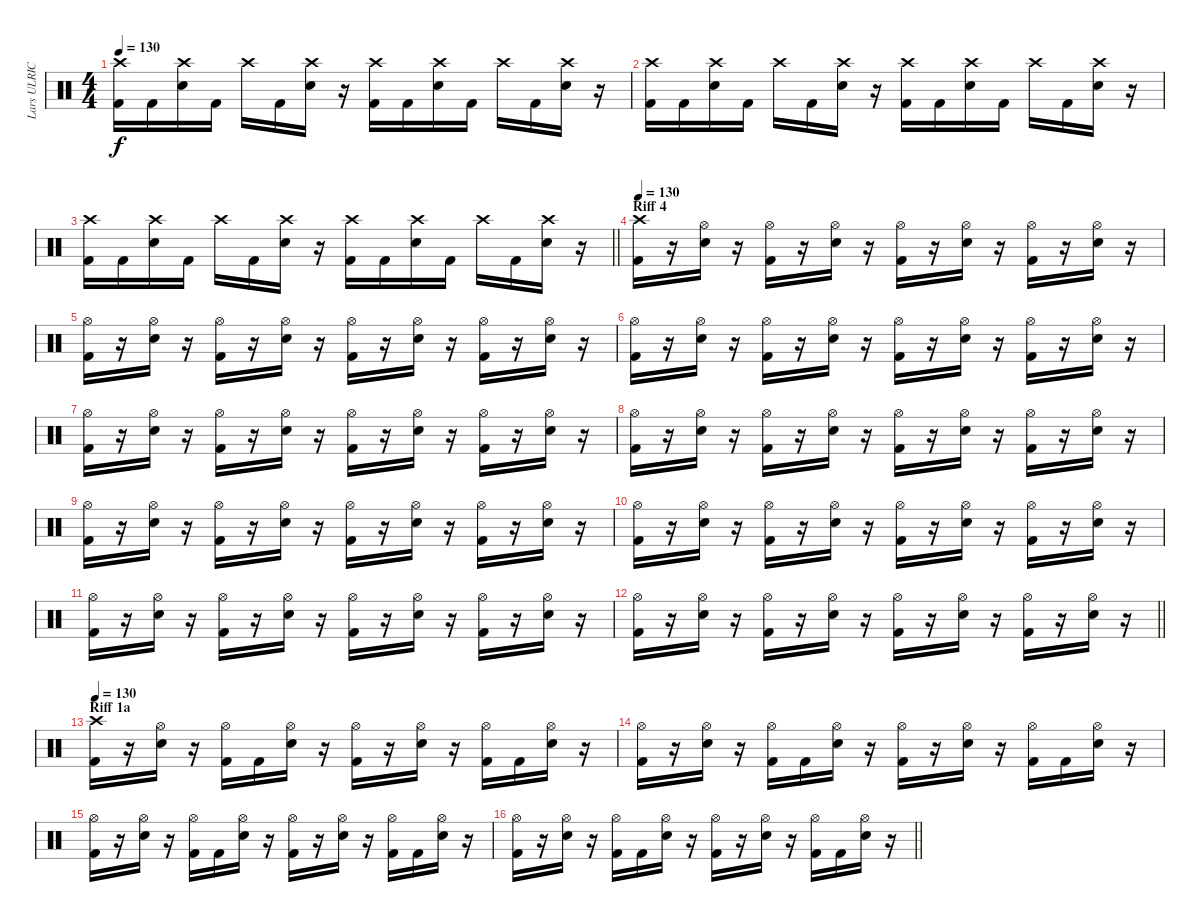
\track ("Lars ULRICH" "Lars ULRIC") {instrument percussion}
\staff {score}
\articulation defaults
\ts (4 4)
\tempo 130
\clef neutral
\ks c
("Crash high (hit)" "Kick (hit) 2").16{dy f} "Kick (hit) 2".16 ("Crash high (hit)" "Snare (hit) 2").16 "Kick (hit) 2".16 "Crash high (hit)".16 "Kick (hit) 2".16 ("Crash high (hit)" "Snare (hit) 2").16 r.16 ("Crash high (hit)" "Kick (hit) 2").16 "Kick (hit) 2".16 ("Crash high (hit)" "Snare (hit) 2").16 "Kick (hit) 2".16 "Crash high (hit)".16 "Kick (hit) 2".16 ("Crash high (hit)" "Snare (hit) 2").16 r.16 |
("Crash high (hit)" "Kick (hit) 2").16 "Kick (hit) 2".16 ("Crash high (hit)" "Snare (hit) 2").16 "Kick (hit) 2".16 "Crash high (hit)".16 "Kick (hit) 2".16 ("Crash high (hit)" "Snare (hit) 2").16 r.16 ("Crash high (hit)" "Kick (hit) 2").16 "Kick (hit) 2".16 ("Crash high (hit)" "Snare (hit) 2").16 "Kick (hit) 2".16 "Crash high (hit)".16 "Kick (hit) 2".16 ("Crash high (hit)" "Snare (hit) 2").16 r.16 |
\barLineRight lightlight
("Crash high (hit)" "Kick (hit) 2").16 "Kick (hit) 2".16 ("Crash high (hit)" "Snare (hit) 2").16 "Kick (hit) 2".16 "Crash high (hit)".16 "Kick (hit) 2".16 ("Crash high (hit)" "Snare (hit) 2").16 r.16 ("Crash high (hit)" "Kick (hit) 2").16 "Kick (hit) 2".16 ("Crash high (hit)" "Snare (hit) 2").16 "Kick (hit) 2".16 "Crash high (hit)".16 "Kick (hit) 2".16 ("Crash high (hit)" "Snare (hit) 2").16 r.16 |
\section ("" "Riff 4")
\tempo 130
("Crash high (hit)" "Kick (hit) 2").16 r.16 ("Hi-Hat (open)" "Snare (hit) 2").16 r.16 ("Hi-Hat (open)" "Kick (hit) 2").16 r.16 ("Hi-Hat (open)" "Snare (hit) 2").16 r.16 ("Hi-Hat (open)" "Kick (hit) 2").16 r.16 ("Hi-Hat (open)" "Snare (hit) 2").16 r.16 ("Hi-Hat (open)" "Kick (hit) 2").16 r.16 ("Hi-Hat (open)" "Snare (hit) 2").16 r.16 |
("Hi-Hat (open)" "Kick (hit) 2").16 r.16 ("Hi-Hat (open)" "Snare (hit) 2").16 r.16 ("Hi-Hat (open)" "Kick (hit) 2").16 r.16 ("Hi-Hat (open)" "Snare (hit) 2").16 r.16 ("Hi-Hat (open)" "Kick (hit) 2").16 r.16 ("Hi-Hat (open)" "Snare (hit) 2").16 r.16 ("Hi-Hat (open)" "Kick (hit) 2").16 r.16 ("Hi-Hat (open)" "Snare (hit) 2").16 r.16 |
("Hi-Hat (open)" "Kick (hit) 2").16 r.16 ("Hi-Hat (open)" "Snare (hit) 2").16 r.16 ("Hi-Hat (open)" "Kick (hit) 2").16 r.16 ("Hi-Hat (open)" "Snare (hit) 2").16 r.16 ("Hi-Hat (open)" "Kick (hit) 2").16 r.16 ("Hi-Hat (open)" "Snare (hit) 2").16 r.16 ("Hi-Hat (open)" "Kick (hit) 2").16 r.16 ("Hi-Hat (open)" "Snare (hit) 2").16 r.16 |
("Hi-Hat (open)" "Kick (hit) 2").16 r.16 ("Hi-Hat (open)" "Snare (hit) 2").16 r.16 ("Hi-Hat (open)" "Kick (hit) 2").16 r.16 ("Hi-Hat (open)" "Snare (hit) 2").16 r.16 ("Hi-Hat (open)" "Kick (hit) 2").16 r.16 ("Hi-Hat (open)" "Snare (hit) 2").16 r.16 ("Hi-Hat (open)" "Kick (hit) 2").16 r.16 ("Hi-Hat (open)" "Snare (hit) 2").16 r.16 |
("Hi-Hat (open)" "Kick (hit) 2").16 r.16 ("Hi-Hat (open)" "Snare (hit) 2").16 r.16 ("Hi-Hat (open)" "Kick (hit) 2").16 r.16 ("Hi-Hat (open)" "Snare (hit) 2").16 r.16 ("Hi-Hat (open)" "Kick (hit) 2").16 r.16 ("Hi-Hat (open)" "Snare (hit) 2").16 r.16 ("Hi-Hat (open)" "Kick (hit) 2").16 r.16 ("Hi-Hat (open)" "Snare (hit) 2").16 r.16 |
("Hi-Hat (open)" "Kick (hit) 2").16 r.16 ("Hi-Hat (open)" "Snare (hit) 2").16 r.16 ("Hi-Hat (open)" "Kick (hit) 2").16 r.16 ("Hi-Hat (open)" "Snare (hit) 2").16 r.16 ("Hi-Hat (open)" "Kick (hit) 2").16 r.16 ("Hi-Hat (open)" "Snare (hit) 2").16 r.16 ("Hi-Hat (open)" "Kick (hit) 2").16 r.16 ("Hi-Hat (open)" "Snare (hit) 2").16 r.16 |
("Hi-Hat (open)" "Kick (hit) 2").16 r.16 ("Hi-Hat (open)" "Snare (hit) 2").16 r.16 ("Hi-Hat (open)" "Kick (hit) 2").16 r.16 ("Hi-Hat (open)" "Snare (hit) 2").16 r.16 ("Hi-Hat (open)" "Kick (hit) 2").16 r.16 ("Hi-Hat (open)" "Snare (hit) 2").16 r.16 ("Hi-Hat (open)" "Kick (hit) 2").16 r.16 ("Hi-Hat (open)" "Snare (hit) 2").16 r.16 |
("Hi-Hat (open)" "Kick (hit) 2").16 r.16 ("Hi-Hat (open)" "Snare (hit) 2").16 r.16 ("Hi-Hat (open)" "Kick (hit) 2").16 r.16 ("Hi-Hat (open)" "Snare (hit) 2").16 r.16 ("Hi-Hat (open)" "Kick (hit) 2").16 r.16 ("Hi-Hat (open)" "Snare (hit) 2").16 r.16 ("Hi-Hat (open)" "Kick (hit) 2").16 r.16 ("Hi-Hat (open)" "Snare (hit) 2").16 r.16 |
\barLineRight lightlight
("Hi-Hat (open)" "Kick (hit) 2").16 r.16 ("Hi-Hat (open)" "Snare (hit) 2").16 r.16 ("Hi-Hat (open)" "Kick (hit) 2").16 r.16 ("Hi-Hat (open)" "Snare (hit) 2").16 r.16 ("Hi-Hat (open)" "Kick (hit) 2").16 r.16 ("Hi-Hat (open)" "Snare (hit) 2").16 r.16 ("Hi-Hat (open)" "Kick (hit) 2").16 r.16 ("Hi-Hat (open)" "Snare (hit) 2").16 r.16 |
\section ("" "Riff 1a")
\tempo 130
("Crash high (hit)" "Kick (hit) 2").16 r.16 ("Hi-Hat (open)" "Snare (hit) 2").16 r.16 ("Hi-Hat (open)" "Kick (hit) 2").16 "Kick (hit) 2".16 ("Hi-Hat (open)" "Snare (hit) 2").16 r.16 ("Hi-Hat (open)" "Kick (hit) 2").16 r.16 ("Hi-Hat (open)" "Snare (hit) 2").16 r.16 ("Hi-Hat (open)" "Kick (hit) 2").16 "Kick (hit) 2".16 ("Hi-Hat (open)" "Snare (hit) 2").16 r.16 |
("Hi-Hat (open)" "Kick (hit) 2").16 r.16 ("Hi-Hat (open)" "Snare (hit) 2").16 r.16 ("Hi-Hat (open)" "Kick (hit) 2").16 "Kick (hit) 2".16 ("Hi-Hat (open)" "Snare (hit) 2").16 r.16 ("Hi-Hat (open)" "Kick (hit) 2").16 r.16 ("Hi-Hat (open)" "Snare (hit) 2").16 r.16 ("Hi-Hat (open)" "Kick (hit) 2").16 "Kick (hit) 2".16 ("Hi-Hat (open)" "Snare (hit) 2").16 r.16 |
("Hi-Hat (open)" "Kick (hit) 2").16 r.16 ("Hi-Hat (open)" "Snare (hit) 2").16 r.16 ("Hi-Hat (open)" "Kick (hit) 2").16 "Kick (hit) 2".16 ("Hi-Hat (open)" "Snare (hit) 2").16 r.16 ("Hi-Hat (open)" "Kick (hit) 2").16 r.16 ("Hi-Hat (open)" "Snare (hit) 2").16 r.16 ("Hi-Hat (open)" "Kick (hit) 2").16 "Kick (hit) 2".16 ("Hi-Hat (open)" "Snare (hit) 2").16 r.16 |
\barLineRight lightlight
("Hi-Hat (open)" "Kick (hit) 2").16 r.16 ("Hi-Hat (open)" "Snare (hit) 2").16 r.16 ("Hi-Hat (open)" "Kick (hit) 2").16 "Kick (hit) 2".16 ("Hi-Hat (open)" "Snare (hit) 2").16 r.16 ("Hi-Hat (open)" "Kick (hit) 2").16 r.16 ("Hi-Hat (open)" "Snare (hit) 2").16 r.16 ("Hi-Hat (open)" "Kick (hit) 2").16 "Kick (hit) 2".16 ("Hi-Hat (open)" "Snare (hit) 2").16 r.16
